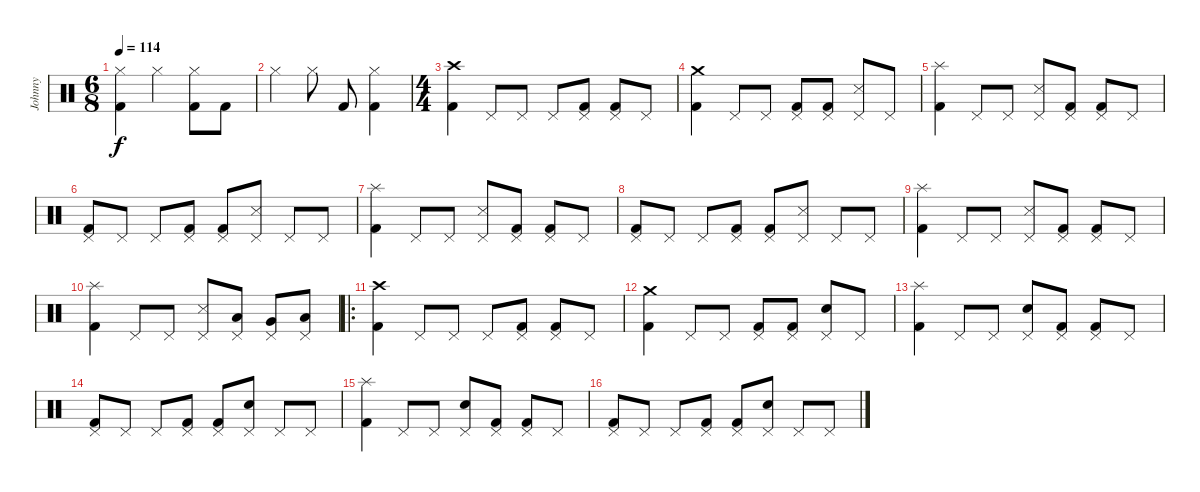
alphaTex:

\track ("Johnny" "Johnny") {instrument percussion}
\staff {score}
\articulation defaults
\ts (6 8)
\tempo 114
\clef neutral
\ks c
("Hi-Hat (closed)" "Kick (hit) 2").4{dy f} "Hi-Hat (closed)".4 ("Hi-Hat (closed)" "Kick (hit) 2").8 "Kick (hit) 2".8 |
"Hi-Hat (closed)".4 "Hi-Hat (closed)".8 "Kick (hit) 2".8 ("Hi-Hat (closed)" "Kick (hit) 2").4 |
\ts (4 4)
("Crash high (hit)" "Kick (hit) 2").4 "Pedal Hi-Hat (hit)".8 "Pedal Hi-Hat (hit)".8 "Pedal Hi-Hat (hit)".8 ("Pedal Hi-Hat (hit)" "Kick (hit) 2").8 ("Pedal Hi-Hat (hit)" "Kick (hit) 2").8 "Pedal Hi-Hat (hit)".8 |
("Crash medium (hit)" "Kick (hit) 2").4 "Pedal Hi-Hat (hit)".8 "Pedal Hi-Hat (hit)".8 ("Pedal Hi-Hat (hit)" "Kick (hit) 2").8 ("Pedal Hi-Hat (hit)" "Kick (hit) 2").8 ("Pedal Hi-Hat (hit)" "Snare (side stick) 3").8 "Pedal Hi-Hat (hit)".8 |
("Splash (hit)" "Kick (hit) 2").4 "Pedal Hi-Hat (hit)".8 "Pedal Hi-Hat (hit)".8 ("Pedal Hi-Hat (hit)" "Snare (side stick) 3").8 ("Pedal Hi-Hat (hit)" "Kick (hit) 2").8 ("Pedal Hi-Hat (hit)" "Kick (hit) 2").8 "Pedal Hi-Hat (hit)".8 |
("Pedal Hi-Hat (hit)" "Kick (hit) 2").8 "Pedal Hi-Hat (hit)".8 "Pedal Hi-Hat (hit)".8 ("Pedal Hi-Hat (hit)" "Kick (hit) 2").8 ("Pedal Hi-Hat (hit)" "Kick (hit) 2").8 ("Pedal Hi-Hat (hit)" "Snare (side stick) 3").8 "Pedal Hi-Hat (hit)".8 "Pedal Hi-Hat (hit)".8 |
("Splash (hit)" "Kick (hit) 2").4 "Pedal Hi-Hat (hit)".8 "Pedal Hi-Hat (hit)".8 ("Pedal Hi-Hat (hit)" "Snare (side stick) 3").8 ("Pedal Hi-Hat (hit)" "Kick (hit) 2").8 ("Pedal Hi-Hat (hit)" "Kick (hit) 2").8 "Pedal Hi-Hat (hit)".8 |
("Pedal Hi-Hat (hit)" "Kick (hit) 2").8 "Pedal Hi-Hat (hit)".8 "Pedal Hi-Hat (hit)".8 ("Pedal Hi-Hat (hit)" "Kick (hit) 2").8 ("Pedal Hi-Hat (hit)" "Kick (hit) 2").8 ("Pedal Hi-Hat (hit)" "Snare (side stick) 3").8 "Pedal Hi-Hat (hit)".8 "Pedal Hi-Hat (hit)".8 |
("Splash (hit)" "Kick (hit) 2").4 "Pedal Hi-Hat (hit)".8 "Pedal Hi-Hat (hit)".8 ("Pedal Hi-Hat (hit)" "Snare (side stick) 3").8 ("Pedal Hi-Hat (hit)" "Kick (hit) 2").8 ("Pedal Hi-Hat (hit)" "Kick (hit) 2").8 "Pedal Hi-Hat (hit)".8 |
("Splash (hit)" "Kick (hit) 2").4 "Pedal Hi-Hat (hit)".8 "Pedal Hi-Hat (hit)".8 ("Pedal Hi-Hat (hit)" "Snare (side stick) 3").8 ("Pedal Hi-Hat (hit)" "Low Tom (hit)").8 ("Pedal Hi-Hat (hit)" "Very Low Tom (hit)").8 ("Pedal Hi-Hat (hit)" "Low Floor Tom (hit)").8 |
\ro
("Crash high (hit)" "Kick (hit) 2").4 "Pedal Hi-Hat (hit)".8 "Pedal Hi-Hat (hit)".8 "Pedal Hi-Hat (hit)".8 ("Pedal Hi-Hat (hit)" "Kick (hit) 2").8 ("Pedal Hi-Hat (hit)" "Kick (hit) 2").8 "Pedal Hi-Hat (hit)".8 |
("Crash medium (hit)" "Kick (hit) 2").4 "Pedal Hi-Hat (hit)".8 "Pedal Hi-Hat (hit)".8 ("Pedal Hi-Hat (hit)" "Kick (hit) 2").8 ("Pedal Hi-Hat (hit)" "Kick (hit) 2").8 ("Pedal Hi-Hat (hit)" "Snare (hit) 2").8 "Pedal Hi-Hat (hit)".8 |
("Splash (hit)" "Kick (hit) 2").4 "Pedal Hi-Hat (hit)".8 "Pedal Hi-Hat (hit)".8 ("Pedal Hi-Hat (hit)" "Snare (hit) 2").8 ("Pedal Hi-Hat (hit)" "Kick (hit) 2").8 ("Pedal Hi-Hat (hit)" "Kick (hit) 2").8 "Pedal Hi-Hat (hit)".8 |
("Pedal Hi-Hat (hit)" "Kick (hit) 2").8 "Pedal Hi-Hat (hit)".8 "Pedal Hi-Hat (hit)".8 ("Pedal Hi-Hat (hit)" "Kick (hit) 2").8 ("Pedal Hi-Hat (hit)" "Kick (hit) 2").8 ("Pedal Hi-Hat (hit)" "Snare (hit) 2").8 "Pedal Hi-Hat (hit)".8 "Pedal Hi-Hat (hit)".8 |
("Splash (hit)" "Kick (hit) 2").4 "Pedal Hi-Hat (hit)".8 "Pedal Hi-Hat (hit)".8 ("Pedal Hi-Hat (hit)" "Snare (hit) 2").8 ("Pedal Hi-Hat (hit)" "Kick (hit) 2").8 ("Pedal Hi-Hat (hit)" "Kick (hit) 2").8 "Pedal Hi-Hat (hit)".8 |
("Pedal Hi-Hat (hit)" "Kick (hit) 2").8 "Pedal Hi-Hat (hit)".8 "Pedal Hi-Hat (hit)".8 ("Pedal Hi-Hat (hit)" "Kick (hit) 2").8 ("Pedal Hi-Hat (hit)" "Kick (hit) 2").8 ("Pedal Hi-Hat (hit)" "Snare (hit) 2").8 "Pedal Hi-Hat (hit)".8 "Pedal Hi-Hat (hit)".8
